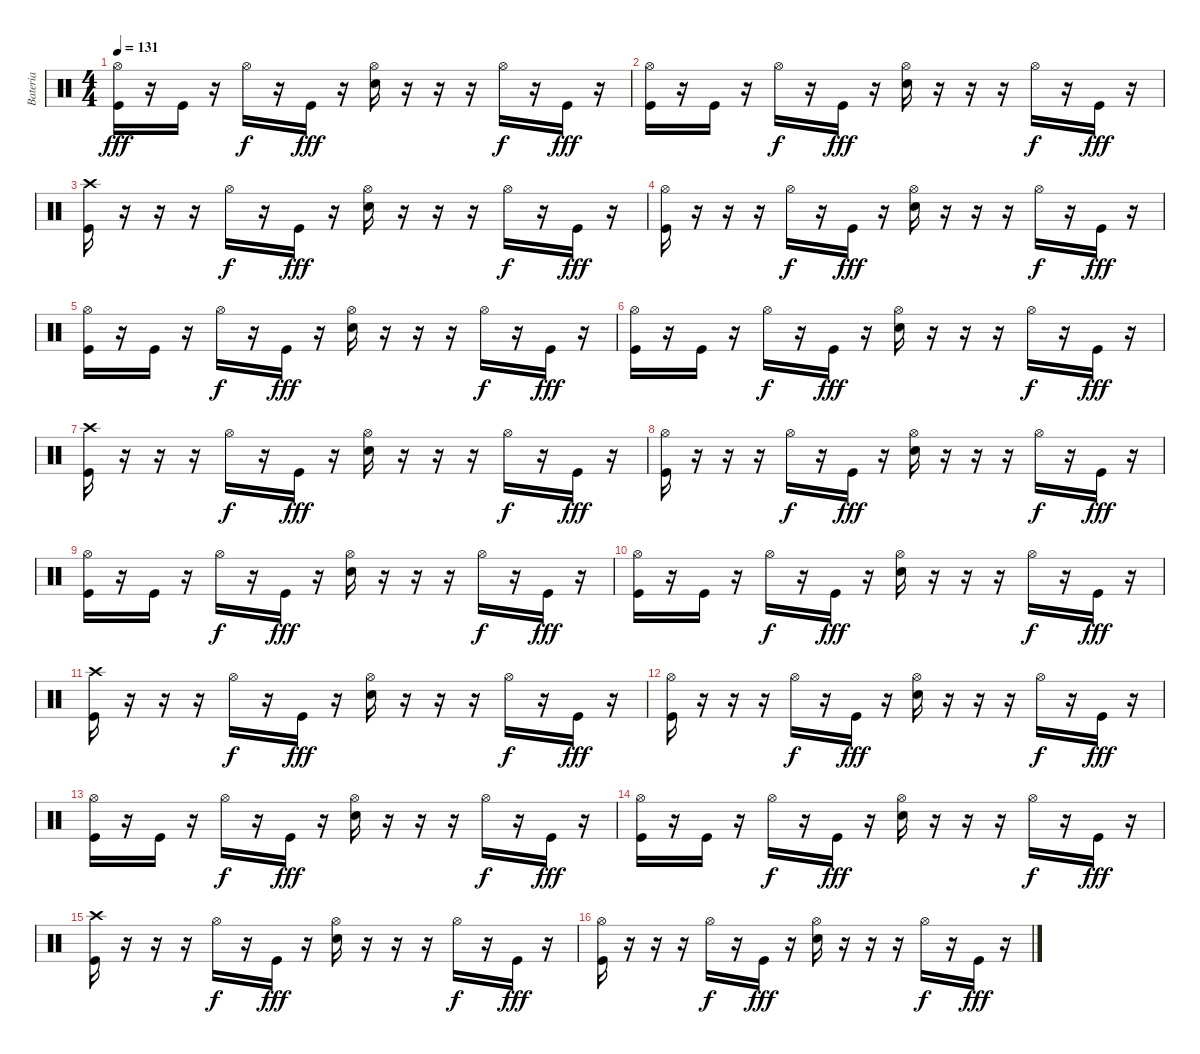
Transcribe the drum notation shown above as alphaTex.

\track ("Bateria" "Bateria") {instrument percussion}
\staff {score}
\articulation defaults
\ts (4 4)
\tempo 131
\clef neutral
\ks c
("Hi-Hat (open)" "Kick (hit)").16{dy fff} r.16 "Kick (hit)".16 r.16 "Hi-Hat (open)".16{dy f} r.16 "Kick (hit)".16{dy fff} r.16 ("Hi-Hat (open)" "Electric Snare (hit)").16 r.16 r.16 r.16 "Hi-Hat (open)".16{dy f} r.16 "Kick (hit)".16{dy fff} r.16 |
("Hi-Hat (open)" "Kick (hit)").16 r.16 "Kick (hit)".16 r.16 "Hi-Hat (open)".16{dy f} r.16 "Kick (hit)".16{dy fff} r.16 ("Hi-Hat (open)" "Electric Snare (hit)").16 r.16 r.16 r.16 "Hi-Hat (open)".16{dy f} r.16 "Kick (hit)".16{dy fff} r.16 |
("Crash high (hit)" "Kick (hit)").16 r.16 r.16 r.16 "Hi-Hat (open)".16{dy f} r.16 "Kick (hit)".16{dy fff} r.16 ("Hi-Hat (open)" "Electric Snare (hit)").16 r.16 r.16 r.16 "Hi-Hat (open)".16{dy f} r.16 "Kick (hit)".16{dy fff} r.16 |
("Hi-Hat (open)" "Kick (hit)").16 r.16 r.16 r.16 "Hi-Hat (open)".16{dy f} r.16 "Kick (hit)".16{dy fff} r.16 ("Hi-Hat (open)" "Electric Snare (hit)").16 r.16 r.16 r.16 "Hi-Hat (open)".16{dy f} r.16 "Kick (hit)".16{dy fff} r.16 |
("Hi-Hat (open)" "Kick (hit)").16 r.16 "Kick (hit)".16 r.16 "Hi-Hat (open)".16{dy f} r.16 "Kick (hit)".16{dy fff} r.16 ("Hi-Hat (open)" "Electric Snare (hit)").16 r.16 r.16 r.16 "Hi-Hat (open)".16{dy f} r.16 "Kick (hit)".16{dy fff} r.16 |
("Hi-Hat (open)" "Kick (hit)").16 r.16 "Kick (hit)".16 r.16 "Hi-Hat (open)".16{dy f} r.16 "Kick (hit)".16{dy fff} r.16 ("Hi-Hat (open)" "Electric Snare (hit)").16 r.16 r.16 r.16 "Hi-Hat (open)".16{dy f} r.16 "Kick (hit)".16{dy fff} r.16 |
("Crash high (hit)" "Kick (hit)").16 r.16 r.16 r.16 "Hi-Hat (open)".16{dy f} r.16 "Kick (hit)".16{dy fff} r.16 ("Hi-Hat (open)" "Electric Snare (hit)").16 r.16 r.16 r.16 "Hi-Hat (open)".16{dy f} r.16 "Kick (hit)".16{dy fff} r.16 |
("Hi-Hat (open)" "Kick (hit)").16 r.16 r.16 r.16 "Hi-Hat (open)".16{dy f} r.16 "Kick (hit)".16{dy fff} r.16 ("Hi-Hat (open)" "Electric Snare (hit)").16 r.16 r.16 r.16 "Hi-Hat (open)".16{dy f} r.16 "Kick (hit)".16{dy fff} r.16 |
("Hi-Hat (open)" "Kick (hit)").16 r.16 "Kick (hit)".16 r.16 "Hi-Hat (open)".16{dy f} r.16 "Kick (hit)".16{dy fff} r.16 ("Hi-Hat (open)" "Electric Snare (hit)").16 r.16 r.16 r.16 "Hi-Hat (open)".16{dy f} r.16 "Kick (hit)".16{dy fff} r.16 |
("Hi-Hat (open)" "Kick (hit)").16 r.16 "Kick (hit)".16 r.16 "Hi-Hat (open)".16{dy f} r.16 "Kick (hit)".16{dy fff} r.16 ("Hi-Hat (open)" "Electric Snare (hit)").16 r.16 r.16 r.16 "Hi-Hat (open)".16{dy f} r.16 "Kick (hit)".16{dy fff} r.16 |
("Crash high (hit)" "Kick (hit)").16 r.16 r.16 r.16 "Hi-Hat (open)".16{dy f} r.16 "Kick (hit)".16{dy fff} r.16 ("Hi-Hat (open)" "Electric Snare (hit)").16 r.16 r.16 r.16 "Hi-Hat (open)".16{dy f} r.16 "Kick (hit)".16{dy fff} r.16 |
("Hi-Hat (open)" "Kick (hit)").16 r.16 r.16 r.16 "Hi-Hat (open)".16{dy f} r.16 "Kick (hit)".16{dy fff} r.16 ("Hi-Hat (open)" "Electric Snare (hit)").16 r.16 r.16 r.16 "Hi-Hat (open)".16{dy f} r.16 "Kick (hit)".16{dy fff} r.16 |
("Hi-Hat (open)" "Kick (hit)").16 r.16 "Kick (hit)".16 r.16 "Hi-Hat (open)".16{dy f} r.16 "Kick (hit)".16{dy fff} r.16 ("Hi-Hat (open)" "Electric Snare (hit)").16 r.16 r.16 r.16 "Hi-Hat (open)".16{dy f} r.16 "Kick (hit)".16{dy fff} r.16 |
("Hi-Hat (open)" "Kick (hit)").16 r.16 "Kick (hit)".16 r.16 "Hi-Hat (open)".16{dy f} r.16 "Kick (hit)".16{dy fff} r.16 ("Hi-Hat (open)" "Electric Snare (hit)").16 r.16 r.16 r.16 "Hi-Hat (open)".16{dy f} r.16 "Kick (hit)".16{dy fff} r.16 |
("Crash high (hit)" "Kick (hit)").16 r.16 r.16 r.16 "Hi-Hat (open)".16{dy f} r.16 "Kick (hit)".16{dy fff} r.16 ("Hi-Hat (open)" "Electric Snare (hit)").16 r.16 r.16 r.16 "Hi-Hat (open)".16{dy f} r.16 "Kick (hit)".16{dy fff} r.16 |
("Hi-Hat (open)" "Kick (hit)").16 r.16 r.16 r.16 "Hi-Hat (open)".16{dy f} r.16 "Kick (hit)".16{dy fff} r.16 ("Hi-Hat (open)" "Electric Snare (hit)").16 r.16 r.16 r.16 "Hi-Hat (open)".16{dy f} r.16 "Kick (hit)".16{dy fff} r.16
